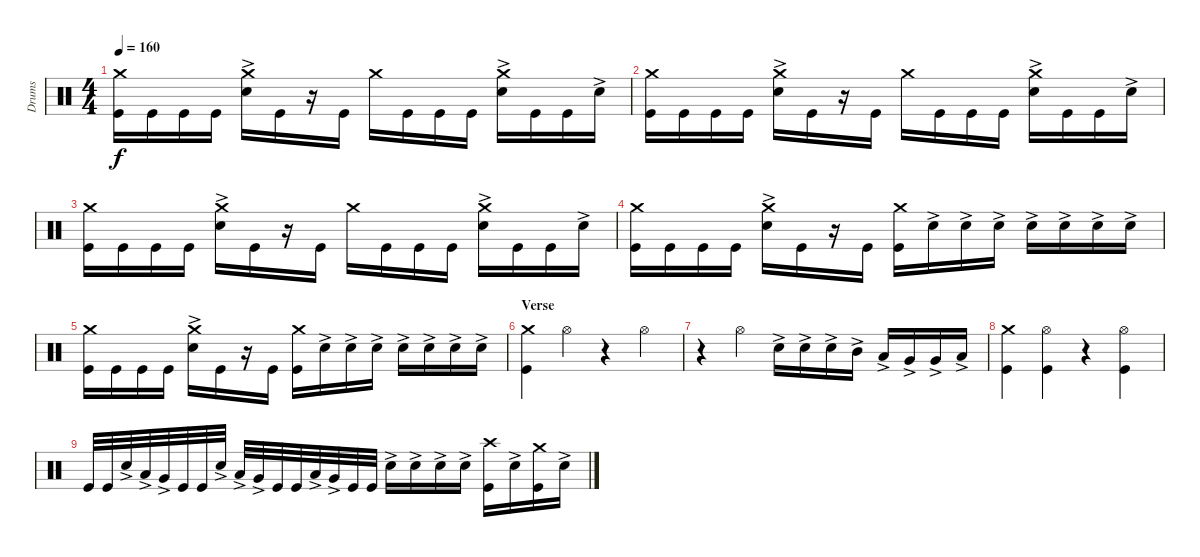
\track ("Drums" "Drums") {instrument percussion}
\staff {score}
\articulation defaults
\ts (4 4)
\tempo 160
\clef neutral
\ks c
("Crash medium (hit)" "Kick (hit)").16{dy f} "Kick (hit)".16 "Kick (hit)".16 "Kick (hit)".16 ("Crash medium (hit)" "Snare (hit) 2"{ac}).16 "Kick (hit)".16 r.16 "Kick (hit)".16 "Crash medium (hit)".16 "Kick (hit)".16 "Kick (hit)".16 "Kick (hit)".16 ("Crash medium (hit)" "Snare (hit) 2"{ac}).16 "Kick (hit)".16 "Kick (hit)".16 "Snare (hit) 2"{ac}.16 |
("Crash medium (hit)" "Kick (hit)").16 "Kick (hit)".16 "Kick (hit)".16 "Kick (hit)".16 ("Crash medium (hit)" "Snare (hit) 2"{ac}).16 "Kick (hit)".16 r.16 "Kick (hit)".16 "Crash medium (hit)".16 "Kick (hit)".16 "Kick (hit)".16 "Kick (hit)".16 ("Crash medium (hit)" "Snare (hit) 2"{ac}).16 "Kick (hit)".16 "Kick (hit)".16 "Snare (hit) 2"{ac}.16 |
("Crash medium (hit)" "Kick (hit)").16 "Kick (hit)".16 "Kick (hit)".16 "Kick (hit)".16 ("Crash medium (hit)" "Snare (hit) 2"{ac}).16 "Kick (hit)".16 r.16 "Kick (hit)".16 "Crash medium (hit)".16 "Kick (hit)".16 "Kick (hit)".16 "Kick (hit)".16 ("Crash medium (hit)" "Snare (hit) 2"{ac}).16 "Kick (hit)".16 "Kick (hit)".16 "Snare (hit) 2"{ac}.16 |
("Crash medium (hit)" "Kick (hit)").16 "Kick (hit)".16 "Kick (hit)".16 "Kick (hit)".16 ("Crash medium (hit)" "Snare (hit) 2"{ac}).16 "Kick (hit)".16 r.16 "Kick (hit)".16 ("Kick (hit)" "Crash medium (hit)").16 "Snare (hit) 2"{ac}.16 "Snare (hit) 2"{ac}.16 "Snare (hit) 2"{ac}.16 "Snare (hit) 2"{ac}.16 "Snare (hit) 2"{ac}.16 "Snare (hit) 2"{ac}.16 "Snare (hit) 2"{ac}.16 |
("Crash medium (hit)" "Kick (hit)").16 "Kick (hit)".16 "Kick (hit)".16 "Kick (hit)".16 ("Crash medium (hit)" "Snare (hit) 2"{ac}).16 "Kick (hit)".16 r.16 "Kick (hit)".16 ("Kick (hit)" "Crash medium (hit)").16 "Snare (hit) 2"{ac}.16 "Snare (hit) 2"{ac}.16 "Snare (hit) 2"{ac}.16 "Snare (hit) 2"{ac}.16 "Snare (hit) 2"{ac}.16 "Snare (hit) 2"{ac}.16 "Snare (hit) 2"{ac}.16 |
\section ("" "Verse")
("Kick (hit)" "Crash medium (hit)").4 "Hi-Hat (open)".4 r.4 "Hi-Hat (open)".4 |
r.4 "Hi-Hat (open)".4 "Snare (hit) 2"{ac}.16 "Snare (hit) 2"{ac}.16 "Snare (hit) 2"{ac}.16 "Mid Tom (hit)"{ac}.16 "Low Tom (hit)"{ac}.16 "Very Low Tom (hit)"{ac}.16 "Very Low Tom (hit)"{ac}.16 "Low Floor Tom (hit)"{ac}.16 |
("Kick (hit)" "Crash medium (hit)").4 ("Hi-Hat (open)" "Kick (hit)").4 r.4 ("Hi-Hat (open)" "Kick (hit)").4 |
"Kick (hit)".32 "Kick (hit)".32 "Snare (hit) 2"{ac}.32 "Low Tom (hit)"{ac}.32 "Very Low Tom (hit)"{ac}.32 "Kick (hit)".32 "Kick (hit)".32 "Snare (hit) 2"{ac}.32 "Low Tom (hit)"{ac}.32 "Very Low Tom (hit)"{ac}.32 "Kick (hit)".32 "Kick (hit)".32 "Low Tom (hit)"{ac}.32 "Very Low Tom (hit)"{ac}.32 "Kick (hit)".32 "Kick (hit)".32 "Snare (hit) 2"{ac}.16 "Snare (hit) 2"{ac}.16 "Snare (hit) 2"{ac}.16 "Snare (hit) 2"{ac}.16 ("Kick (hit)" "Crash high (hit)").16 "Snare (hit) 2"{ac}.16 ("Kick (hit)" "Crash medium (hit)").16 "Snare (hit) 2"{ac}.16
